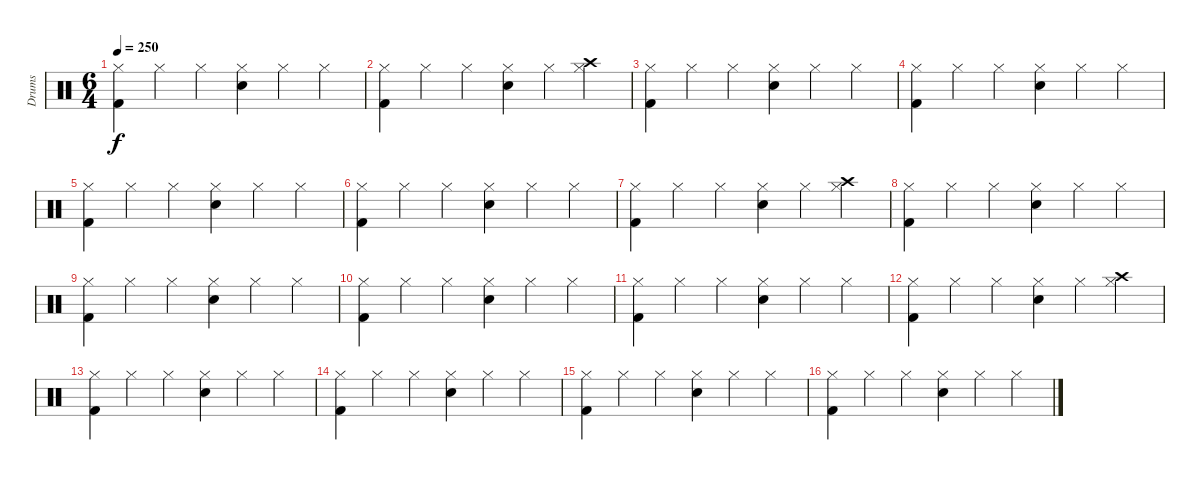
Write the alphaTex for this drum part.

\track ("Drums" "Drums") {instrument percussion}
\staff {score}
\articulation defaults
\ts (6 4)
\tempo 250
\clef neutral
\ks c
("Hi-Hat (closed)" "Kick (hit) 2").4{dy f} "Hi-Hat (closed)".4 "Hi-Hat (closed)".4 ("Hi-Hat (closed)" "Snare (hit) 2").4 "Hi-Hat (closed)".4 "Hi-Hat (closed)".4 |
("Hi-Hat (closed)" "Kick (hit) 2").4 "Hi-Hat (closed)".4 "Hi-Hat (closed)".4 ("Hi-Hat (closed)" "Snare (hit) 2").4 "Hi-Hat (closed)".4 ("Hi-Hat (closed)" "Crash high (hit)").4 |
("Hi-Hat (closed)" "Kick (hit) 2").4 "Hi-Hat (closed)".4 "Hi-Hat (closed)".4 ("Hi-Hat (closed)" "Snare (hit) 2").4 "Hi-Hat (closed)".4 "Hi-Hat (closed)".4 |
("Hi-Hat (closed)" "Kick (hit) 2").4 "Hi-Hat (closed)".4 "Hi-Hat (closed)".4 ("Hi-Hat (closed)" "Snare (hit) 2").4 "Hi-Hat (closed)".4 "Hi-Hat (closed)".4 |
("Hi-Hat (closed)" "Kick (hit) 2").4 "Hi-Hat (closed)".4 "Hi-Hat (closed)".4 ("Hi-Hat (closed)" "Snare (hit) 2").4 "Hi-Hat (closed)".4 "Hi-Hat (closed)".4 |
("Hi-Hat (closed)" "Kick (hit) 2").4 "Hi-Hat (closed)".4 "Hi-Hat (closed)".4 ("Hi-Hat (closed)" "Snare (hit) 2").4 "Hi-Hat (closed)".4 "Hi-Hat (closed)".4 |
("Hi-Hat (closed)" "Kick (hit) 2").4 "Hi-Hat (closed)".4 "Hi-Hat (closed)".4 ("Hi-Hat (closed)" "Snare (hit) 2").4 "Hi-Hat (closed)".4 ("Hi-Hat (closed)" "Crash high (hit)").4 |
("Hi-Hat (closed)" "Kick (hit) 2").4 "Hi-Hat (closed)".4 "Hi-Hat (closed)".4 ("Hi-Hat (closed)" "Snare (hit) 2").4 "Hi-Hat (closed)".4 "Hi-Hat (closed)".4 |
("Hi-Hat (closed)" "Kick (hit) 2").4 "Hi-Hat (closed)".4 "Hi-Hat (closed)".4 ("Hi-Hat (closed)" "Snare (hit) 2").4 "Hi-Hat (closed)".4 "Hi-Hat (closed)".4 |
("Hi-Hat (closed)" "Kick (hit) 2").4 "Hi-Hat (closed)".4 "Hi-Hat (closed)".4 ("Hi-Hat (closed)" "Snare (hit) 2").4 "Hi-Hat (closed)".4 "Hi-Hat (closed)".4 |
("Hi-Hat (closed)" "Kick (hit) 2").4 "Hi-Hat (closed)".4 "Hi-Hat (closed)".4 ("Hi-Hat (closed)" "Snare (hit) 2").4 "Hi-Hat (closed)".4 "Hi-Hat (closed)".4 |
("Hi-Hat (closed)" "Kick (hit) 2").4 "Hi-Hat (closed)".4 "Hi-Hat (closed)".4 ("Hi-Hat (closed)" "Snare (hit) 2").4 "Hi-Hat (closed)".4 ("Hi-Hat (closed)" "Crash high (hit)").4 |
("Hi-Hat (closed)" "Kick (hit) 2").4 "Hi-Hat (closed)".4 "Hi-Hat (closed)".4 ("Hi-Hat (closed)" "Snare (hit) 2").4 "Hi-Hat (closed)".4 "Hi-Hat (closed)".4 |
("Hi-Hat (closed)" "Kick (hit) 2").4 "Hi-Hat (closed)".4 "Hi-Hat (closed)".4 ("Hi-Hat (closed)" "Snare (hit) 2").4 "Hi-Hat (closed)".4 "Hi-Hat (closed)".4 |
("Hi-Hat (closed)" "Kick (hit) 2").4 "Hi-Hat (closed)".4 "Hi-Hat (closed)".4 ("Hi-Hat (closed)" "Snare (hit) 2").4 "Hi-Hat (closed)".4 "Hi-Hat (closed)".4 |
("Hi-Hat (closed)" "Kick (hit) 2").4 "Hi-Hat (closed)".4 "Hi-Hat (closed)".4 ("Hi-Hat (closed)" "Snare (hit) 2").4 "Hi-Hat (closed)".4 "Hi-Hat (closed)".4
